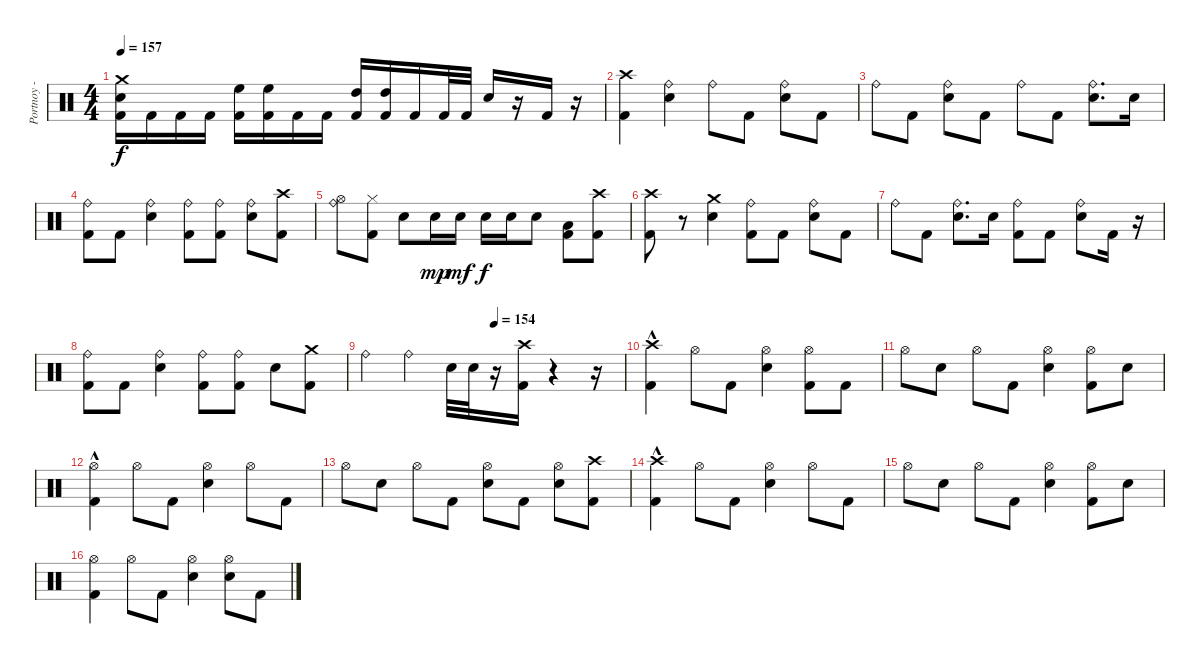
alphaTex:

\track ("Portnoy - Drums" "Portnoy - ") {instrument percussion}
\staff {score}
\articulation defaults
\ts (4 4)
\tempo 157
\clef neutral
\ks c
("Kick (hit) 2" "Electric Snare (hit)" "Crash medium (hit)").16{dy f} "Kick (hit) 2".16 "Kick (hit) 2".16 "Kick (hit) 2".16 ("Kick (hit) 2" "High Floor Tom (hit)").16 ("Kick (hit) 2" "High Floor Tom (hit)").16 "Kick (hit) 2".16 "Kick (hit) 2".16 ("Kick (hit) 2" "High Tom (hit)").16 ("Kick (hit) 2" "High Tom (hit)").16 "Kick (hit) 2".16 "Kick (hit) 2".32 "Kick (hit) 2".32 "Electric Snare (hit)".16 r.16 "Kick (hit) 2".16 r.16 |
("Kick (hit) 2" "Crash high (hit)").4 ("Electric Snare (hit)" "Ride (bell)").4 "Ride (bell)".8 "Kick (hit) 2".8 ("Electric Snare (hit)" "Ride (bell)").8 "Kick (hit) 2".8 |
"Ride (bell)".8 "Kick (hit) 2".8 ("Electric Snare (hit)" "Ride (bell)").8 "Kick (hit) 2".8 "Ride (bell)".8 "Kick (hit) 2".8 ("Electric Snare (hit)" "Ride (bell)").8{d} "Electric Snare (hit)".16 |
("Kick (hit) 2" "Ride (bell)").8 "Kick (hit) 2".8 ("Electric Snare (hit)" "Ride (bell)").4 ("Kick (hit) 2" "Ride (bell)").8 ("Kick (hit) 2" "Ride (bell)").8 ("Ride (bell)" "Electric Snare (hit)").8 ("Crash high (hit)" "Kick (hit) 2").8 |
("Ride (bell)" "Hi-Hat (open)").8 ("Kick (hit) 2" "Hi-Hat (closed)").8 "Electric Snare (hit)".8 "Electric Snare (hit)".16{dy mp} "Electric Snare (hit)".16{dy mf} "Electric Snare (hit)".16{dy f} "Electric Snare (hit)".16 "Electric Snare (hit)".8 ("Kick (hit) 2" "Low Tom (hit)").8 ("Kick (hit) 2" "Crash high (hit)").8 |
("Kick (hit) 2" "Crash high (hit)").8 r.8 ("Electric Snare (hit)" "Crash medium (hit)").4 ("Ride (bell)" "Kick (hit) 2").8 "Kick (hit) 2".8 ("Electric Snare (hit)" "Ride (bell)").8 "Kick (hit) 2".8 |
"Ride (bell)".8 "Kick (hit) 2".8 ("Electric Snare (hit)" "Ride (bell)").8{d} "Electric Snare (hit)".16 ("Ride (bell)" "Kick (hit) 2").8 "Kick (hit) 2".8 ("Electric Snare (hit)" "Ride (bell)").8 "Kick (hit) 2".16 r.16 |
("Kick (hit) 2" "Ride (bell)").8 "Kick (hit) 2".8 ("Electric Snare (hit)" "Ride (bell)").4 ("Kick (hit) 2" "Ride (bell)").8 ("Kick (hit) 2" "Ride (bell)").8 "Electric Snare (hit)".8 ("Kick (hit) 2" "Crash medium (hit)").8 |
\tempo (154 0.5)
"Ride (bell)".4 "Ride (bell)".4 "Electric Snare (hit)".32 "Electric Snare (hit)".32 r.16 ("Kick (hit) 2" "Crash high (hit)").16 r.4 r.16 |
("Crash high (hit)" "Kick (hit) 2"{hac}).4 "Hi-Hat (open)".8 "Kick (hit) 2".8 ("Hi-Hat (open)" "Electric Snare (hit)").4 ("Hi-Hat (open)" "Kick (hit) 2").8 "Kick (hit) 2".8 |
"Hi-Hat (open)".8 "Electric Snare (hit)".8 "Hi-Hat (open)".8 "Kick (hit) 2".8 ("Electric Snare (hit)" "Hi-Hat (open)").4 ("Hi-Hat (open)" "Kick (hit) 2").8 "Electric Snare (hit)".8 |
("Kick (hit) 2"{hac} "Hi-Hat (open)").4 "Hi-Hat (open)".8 "Kick (hit) 2".8 ("Hi-Hat (open)" "Electric Snare (hit)").4 "Hi-Hat (open)".8 "Kick (hit) 2".8 |
"Hi-Hat (open)".8 "Electric Snare (hit)".8 "Hi-Hat (open)".8 "Kick (hit) 2".8 ("Electric Snare (hit)" "Hi-Hat (open)").8 "Kick (hit) 2".8 ("Electric Snare (hit)" "Hi-Hat (open)").8 ("Kick (hit) 2" "Crash high (hit)").8 |
("Kick (hit) 2"{hac} "Crash high (hit)").4 "Hi-Hat (open)".8 "Kick (hit) 2".8 ("Electric Snare (hit)" "Hi-Hat (open)").4 "Hi-Hat (open)".8 "Kick (hit) 2".8 |
"Hi-Hat (open)".8 "Electric Snare (hit)".8 "Hi-Hat (open)".8 "Kick (hit) 2".8 ("Electric Snare (hit)" "Hi-Hat (open)").4 ("Kick (hit) 2" "Hi-Hat (open)").8 "Electric Snare (hit)".8 |
("Kick (hit) 2" "Hi-Hat (open)").4 "Hi-Hat (open)".8 "Kick (hit) 2".8 ("Electric Snare (hit)" "Hi-Hat (open)").4 ("Electric Snare (hit)" "Hi-Hat (open)").8 "Kick (hit) 2".8
